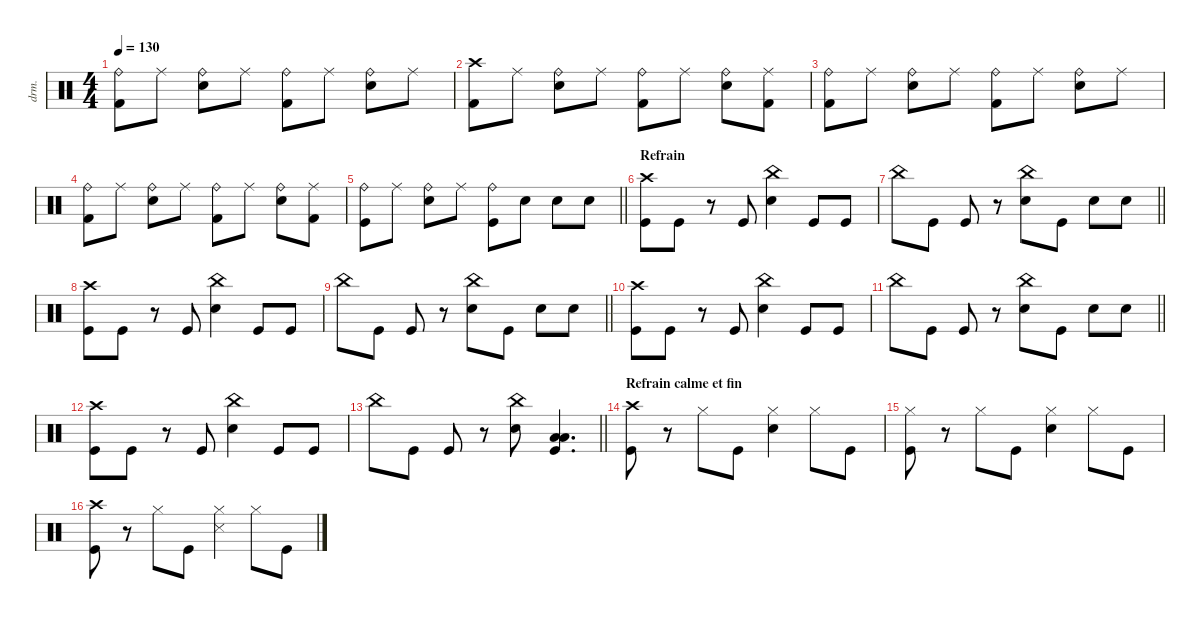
\defaultSystemsLayout 4
\hideDynamics
\bracketExtendMode nobrackets
\otherSystemsTrackNameOrientation horizontal
\track ("Manouche" "drm.") {instrument percussion}
\staff {score}
\articulation defaults
\ts (4 4)
\tempo 130
\clef neutral
\ks c
("Ride (bell)" "Kick (hit) 2").8{dy f} "Ride (middle)".8{dy mf} ("Ride (bell)" "Snare (hit) 2").8{dy f} "Ride (middle)".8{dy mf} ("Ride (bell)" "Kick (hit) 2").8{dy f} "Ride (middle)".8{dy mf} ("Ride (bell)" "Snare (hit) 2").8{dy f} "Ride (middle)".8{dy mf} |
("Crash high (hit)" "Kick (hit) 2").8{dy f} "Ride (middle)".8{dy mf} ("Ride (bell)" "Snare (hit) 2").8{dy f} "Ride (middle)".8{dy mf} ("Ride (bell)" "Kick (hit) 2").8{dy f} "Ride (middle)".8{dy mf} ("Ride (bell)" "Snare (hit) 2").8{dy f} ("Ride (middle)" "Kick (hit) 2").8{dy mf} |
("Ride (bell)" "Kick (hit) 2").8{dy f} "Ride (middle)".8{dy mf} ("Ride (bell)" "Snare (hit) 2").8{dy f} "Ride (middle)".8{dy mf} ("Ride (bell)" "Kick (hit) 2").8{dy f} "Ride (middle)".8{dy mf} ("Ride (bell)" "Snare (hit) 2").8{dy f} "Ride (middle)".8{dy mf} |
("Ride (bell)" "Kick (hit) 2").8{dy f} "Ride (middle)".8{dy mf} ("Ride (bell)" "Snare (hit) 2").8{dy f} "Ride (middle)".8{dy mf} ("Ride (bell)" "Kick (hit) 2").8{dy f} "Ride (middle)".8{dy mf} ("Ride (bell)" "Snare (hit) 2").8{dy f} ("Ride (middle)" "Kick (hit) 2").8{dy mf} |
\barLineRight lightlight
("Ride (bell)" "Kick (hit)").8{dy f} "Ride (middle)".8{dy mf} ("Ride (bell)" "Snare (hit) 2").8{dy f} "Ride (middle)".8{dy mf} ("Ride (bell)" "Kick (hit)").8{dy f} "Snare (hit) 2".8 "Snare (hit) 2".8 "Snare (hit) 2".8 |
\section ("" "Refrain")
("Crash high (hit)" "Kick (hit)").8 "Kick (hit)".8 r.8 "Kick (hit)".8 ("China (hit)" "Snare (hit) 2").4 "Kick (hit)".8 "Kick (hit)".8 |
\barLineRight lightlight "China (hit)".8 "Kick (hit)".8 "Kick (hit)".8
r.8 ("China (hit)" "Snare (hit) 2").8 "Kick (hit)".8 "Snare (hit) 2".8 "Snare (hit) 2".8 |
("Crash high (hit)" "Kick (hit)").8 "Kick (hit)".8 r.8 "Kick (hit)".8 ("China (hit)" "Snare (hit) 2").4 "Kick (hit)".8 "Kick (hit)".8 |
\barLineRight lightlight "China (hit)".8 "Kick (hit)".8 "Kick (hit)".8
r.8 ("China (hit)" "Snare (hit) 2").8 "Kick (hit)".8 "Snare (hit) 2".8 "Snare (hit) 2".8 |
("Crash high (hit)" "Kick (hit)").8 "Kick (hit)".8 r.8 "Kick (hit)".8 ("China (hit)" "Snare (hit) 2").4 "Kick (hit)".8 "Kick (hit)".8 |
\barLineRight lightlight "China (hit)".8 "Kick (hit)".8 "Kick (hit)".8
r.8 ("China (hit)" "Snare (hit) 2").8 "Kick (hit)".8 "Snare (hit) 2".8 "Snare (hit) 2".8 |
("Crash high (hit)" "Kick (hit)").8 "Kick (hit)".8 r.8 "Kick (hit)".8 ("China (hit)" "Snare (hit) 2").4 "Kick (hit)".8 "Kick (hit)".8 |
\barLineRight lightlight "China (hit)".8 "Kick (hit)".8 "Kick (hit)".8
r.8 ("China (hit)" "Snare (hit) 2").8 ("Low Tom (hit)" "Kick (hit)" "Low Floor Tom (hit)").4{d dy ff} |
\section ("" "Refrain calme et fin")
("Crash high (hit)" "Kick (hit)").8{dy f} r.8 "Hi-Hat (closed)".8 "Kick (hit)".8 ("Hi-Hat (closed)" "Snare (hit) 2").4 "Hi-Hat (closed)".8 "Kick (hit)".8 |
("Hi-Hat (closed)" "Kick (hit)").8 r.8 "Hi-Hat (closed)".8 "Kick (hit)".8 ("Hi-Hat (closed)" "Snare (hit) 2").4 "Hi-Hat (closed)".8 "Kick (hit)".8 |
("Crash high (hit)" "Kick (hit)").8 r.8 "Hi-Hat (closed)".8 "Kick (hit)".8 ("Hi-Hat (closed)" "Snare (side stick) 3").4 "Hi-Hat (closed)".8 "Kick (hit)".8
